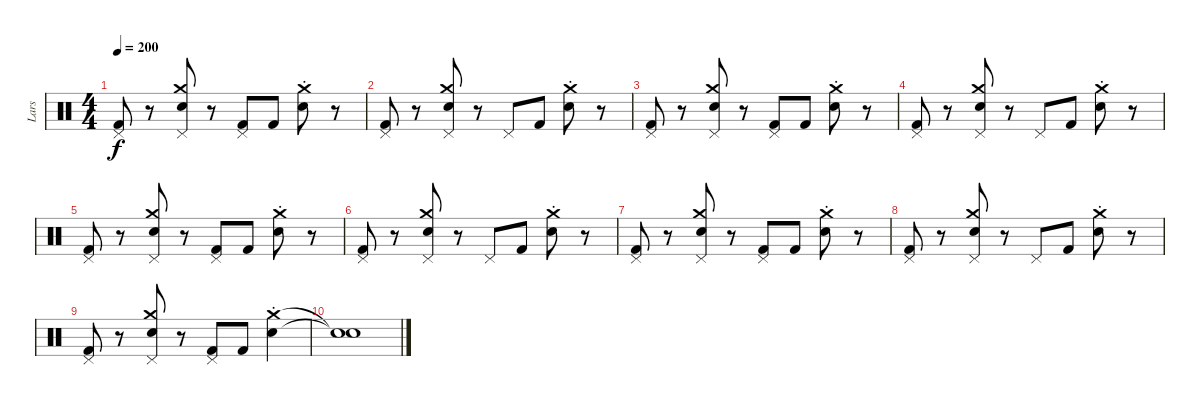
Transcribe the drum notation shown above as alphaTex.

\track ("Lars" "Lars") {instrument percussion}
\staff {score}
\articulation defaults
\ts (4 4)
\tempo 200
\clef neutral
\ks c
("Pedal Hi-Hat (hit)" "Kick (hit) 2").8{dy f} r.8 ("Crash medium (hit)" "Pedal Hi-Hat (hit)" "Snare (hit) 2").8 r.8 ("Pedal Hi-Hat (hit)" "Kick (hit) 2").8 "Kick (hit) 2".8 ("Crash medium (hit)"{st} "Snare (hit) 2").8 r.8 |
("Pedal Hi-Hat (hit)" "Kick (hit) 2").8 r.8 ("Crash medium (hit)" "Pedal Hi-Hat (hit)" "Snare (hit) 2").8 r.8 "Pedal Hi-Hat (hit)".8 "Kick (hit) 2".8 ("Crash medium (hit)"{st} "Snare (hit) 2").8 r.8 |
("Pedal Hi-Hat (hit)" "Kick (hit) 2").8 r.8 ("Crash medium (hit)" "Pedal Hi-Hat (hit)" "Snare (hit) 2").8 r.8 ("Pedal Hi-Hat (hit)" "Kick (hit) 2").8 "Kick (hit) 2".8 ("Crash medium (hit)"{st} "Snare (hit) 2").8 r.8 |
("Pedal Hi-Hat (hit)" "Kick (hit) 2").8 r.8 ("Crash medium (hit)" "Pedal Hi-Hat (hit)" "Snare (hit) 2").8 r.8 "Pedal Hi-Hat (hit)".8 "Kick (hit) 2".8 ("Crash medium (hit)"{st} "Snare (hit) 2").8 r.8 |
("Pedal Hi-Hat (hit)" "Kick (hit) 2").8 r.8 ("Crash medium (hit)" "Pedal Hi-Hat (hit)" "Snare (hit) 2").8 r.8 ("Pedal Hi-Hat (hit)" "Kick (hit) 2").8 "Kick (hit) 2".8 ("Crash medium (hit)"{st} "Snare (hit) 2").8 r.8 |
("Pedal Hi-Hat (hit)" "Kick (hit) 2").8 r.8 ("Crash medium (hit)" "Pedal Hi-Hat (hit)" "Snare (hit) 2").8 r.8 "Pedal Hi-Hat (hit)".8 "Kick (hit) 2".8 ("Crash medium (hit)"{st} "Snare (hit) 2").8 r.8 |
("Pedal Hi-Hat (hit)" "Kick (hit) 2").8 r.8 ("Crash medium (hit)" "Pedal Hi-Hat (hit)" "Snare (hit) 2").8 r.8 ("Pedal Hi-Hat (hit)" "Kick (hit) 2").8 "Kick (hit) 2".8 ("Crash medium (hit)"{st} "Snare (hit) 2").8 r.8 |
("Pedal Hi-Hat (hit)" "Kick (hit) 2").8 r.8 ("Crash medium (hit)" "Pedal Hi-Hat (hit)" "Snare (hit) 2").8 r.8 "Pedal Hi-Hat (hit)".8 "Kick (hit) 2".8 ("Crash medium (hit)"{st} "Snare (hit) 2").8 r.8 |
("Pedal Hi-Hat (hit)" "Kick (hit) 2").8 r.8 ("Crash medium (hit)" "Pedal Hi-Hat (hit)" "Snare (hit) 2").8 r.8 ("Pedal Hi-Hat (hit)" "Kick (hit) 2").8 "Kick (hit) 2".8 ("Crash medium (hit)"{st} "Snare (hit) 2").4 |
("Snare (hit)"{t} "Snare (hit)"{t}).1
